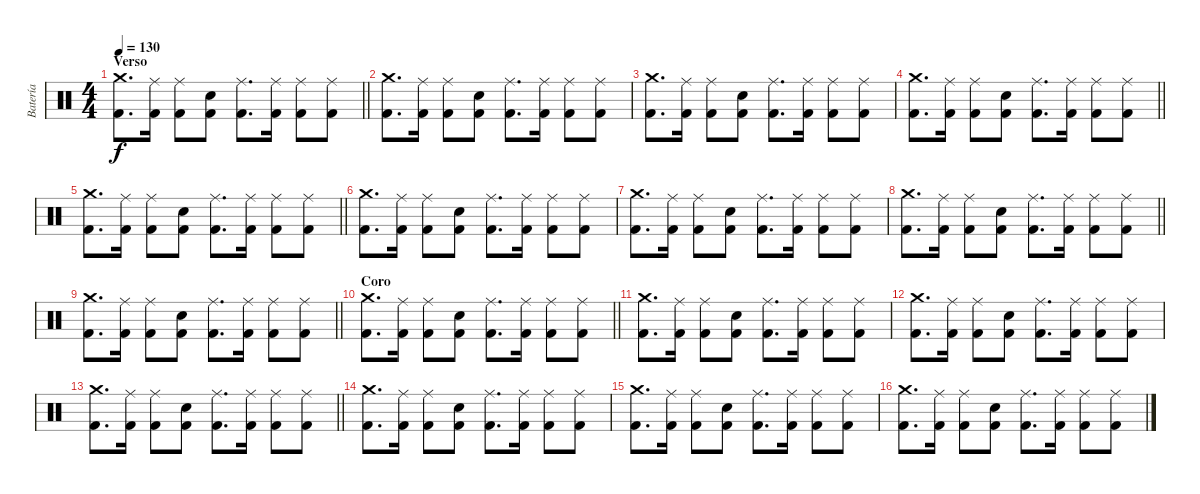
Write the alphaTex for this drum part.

\track ("Batería" "Batería") {instrument percussion}
\staff {score}
\articulation defaults
\ts (4 4)
\section ("" "Verso")
\tempo 130
\clef neutral
\barLineRight lightlight
\ks c
("Crash medium (hit)" "Kick (hit) 2").8{d dy f} ("Ride (middle)" "Kick (hit) 2").16 ("Ride (middle)" "Kick (hit) 2").8 ("Electric Snare (hit)" "Kick (hit) 2").8 ("Ride (middle)" "Kick (hit) 2").8{d} ("Ride (middle)" "Kick (hit) 2").16 ("Ride (middle)" "Kick (hit) 2").8 ("Ride (middle)" "Kick (hit) 2").8 |
("Crash medium (hit)" "Kick (hit) 2").8{d} ("Ride (middle)" "Kick (hit) 2").16 ("Ride (middle)" "Kick (hit) 2").8 ("Electric Snare (hit)" "Kick (hit) 2").8 ("Ride (middle)" "Kick (hit) 2").8{d} ("Ride (middle)" "Kick (hit) 2").16 ("Ride (middle)" "Kick (hit) 2").8 ("Ride (middle)" "Kick (hit) 2").8 |
("Crash medium (hit)" "Kick (hit) 2").8{d} ("Ride (middle)" "Kick (hit) 2").16 ("Ride (middle)" "Kick (hit) 2").8 ("Electric Snare (hit)" "Kick (hit) 2").8 ("Ride (middle)" "Kick (hit) 2").8{d} ("Ride (middle)" "Kick (hit) 2").16 ("Ride (middle)" "Kick (hit) 2").8 ("Ride (middle)" "Kick (hit) 2").8 |
\barLineRight lightlight
("Crash medium (hit)" "Kick (hit) 2").8{d} ("Ride (middle)" "Kick (hit) 2").16 ("Ride (middle)" "Kick (hit) 2").8 ("Electric Snare (hit)" "Kick (hit) 2").8 ("Ride (middle)" "Kick (hit) 2").8{d} ("Ride (middle)" "Kick (hit) 2").16 ("Ride (middle)" "Kick (hit) 2").8 ("Ride (middle)" "Kick (hit) 2").8 |
\barLineRight lightlight
("Crash medium (hit)" "Kick (hit) 2").8{d} ("Ride (middle)" "Kick (hit) 2").16 ("Ride (middle)" "Kick (hit) 2").8 ("Electric Snare (hit)" "Kick (hit) 2").8 ("Ride (middle)" "Kick (hit) 2").8{d} ("Ride (middle)" "Kick (hit) 2").16 ("Ride (middle)" "Kick (hit) 2").8 ("Ride (middle)" "Kick (hit) 2").8 |
("Crash medium (hit)" "Kick (hit) 2").8{d} ("Ride (middle)" "Kick (hit) 2").16 ("Ride (middle)" "Kick (hit) 2").8 ("Electric Snare (hit)" "Kick (hit) 2").8 ("Ride (middle)" "Kick (hit) 2").8{d} ("Ride (middle)" "Kick (hit) 2").16 ("Ride (middle)" "Kick (hit) 2").8 ("Ride (middle)" "Kick (hit) 2").8 |
("Crash medium (hit)" "Kick (hit) 2").8{d} ("Ride (middle)" "Kick (hit) 2").16 ("Ride (middle)" "Kick (hit) 2").8 ("Electric Snare (hit)" "Kick (hit) 2").8 ("Ride (middle)" "Kick (hit) 2").8{d} ("Ride (middle)" "Kick (hit) 2").16 ("Ride (middle)" "Kick (hit) 2").8 ("Ride (middle)" "Kick (hit) 2").8 |
\barLineRight lightlight
("Crash medium (hit)" "Kick (hit) 2").8{d} ("Ride (middle)" "Kick (hit) 2").16 ("Ride (middle)" "Kick (hit) 2").8 ("Electric Snare (hit)" "Kick (hit) 2").8 ("Ride (middle)" "Kick (hit) 2").8{d} ("Ride (middle)" "Kick (hit) 2").16 ("Ride (middle)" "Kick (hit) 2").8 ("Ride (middle)" "Kick (hit) 2").8 |
\barLineRight lightlight
("Crash medium (hit)" "Kick (hit) 2").8{d} ("Ride (middle)" "Kick (hit) 2").16 ("Ride (middle)" "Kick (hit) 2").8 ("Electric Snare (hit)" "Kick (hit) 2").8 ("Ride (middle)" "Kick (hit) 2").8{d} ("Ride (middle)" "Kick (hit) 2").16 ("Ride (middle)" "Kick (hit) 2").8 ("Ride (middle)" "Kick (hit) 2").8 |
\section ("" "Coro")
\barLineRight lightlight
("Crash medium (hit)" "Kick (hit) 2").8{d} ("Ride (middle)" "Kick (hit) 2").16 ("Ride (middle)" "Kick (hit) 2").8 ("Electric Snare (hit)" "Kick (hit) 2").8 ("Ride (middle)" "Kick (hit) 2").8{d} ("Ride (middle)" "Kick (hit) 2").16 ("Ride (middle)" "Kick (hit) 2").8 ("Ride (middle)" "Kick (hit) 2").8 |
("Crash medium (hit)" "Kick (hit) 2").8{d} ("Ride (middle)" "Kick (hit) 2").16 ("Ride (middle)" "Kick (hit) 2").8 ("Electric Snare (hit)" "Kick (hit) 2").8 ("Ride (middle)" "Kick (hit) 2").8{d} ("Ride (middle)" "Kick (hit) 2").16 ("Ride (middle)" "Kick (hit) 2").8 ("Ride (middle)" "Kick (hit) 2").8 |
("Crash medium (hit)" "Kick (hit) 2").8{d} ("Ride (middle)" "Kick (hit) 2").16 ("Ride (middle)" "Kick (hit) 2").8 ("Electric Snare (hit)" "Kick (hit) 2").8 ("Ride (middle)" "Kick (hit) 2").8{d} ("Ride (middle)" "Kick (hit) 2").16 ("Ride (middle)" "Kick (hit) 2").8 ("Ride (middle)" "Kick (hit) 2").8 |
\barLineRight lightlight
("Crash medium (hit)" "Kick (hit) 2").8{d} ("Ride (middle)" "Kick (hit) 2").16 ("Ride (middle)" "Kick (hit) 2").8 ("Electric Snare (hit)" "Kick (hit) 2").8 ("Ride (middle)" "Kick (hit) 2").8{d} ("Ride (middle)" "Kick (hit) 2").16 ("Ride (middle)" "Kick (hit) 2").8 ("Ride (middle)" "Kick (hit) 2").8 |
("Crash medium (hit)" "Kick (hit) 2").8{d} ("Ride (middle)" "Kick (hit) 2").16 ("Ride (middle)" "Kick (hit) 2").8 ("Electric Snare (hit)" "Kick (hit) 2").8 ("Ride (middle)" "Kick (hit) 2").8{d} ("Ride (middle)" "Kick (hit) 2").16 ("Ride (middle)" "Kick (hit) 2").8 ("Ride (middle)" "Kick (hit) 2").8 |
("Crash medium (hit)" "Kick (hit) 2").8{d} ("Ride (middle)" "Kick (hit) 2").16 ("Ride (middle)" "Kick (hit) 2").8 ("Electric Snare (hit)" "Kick (hit) 2").8 ("Ride (middle)" "Kick (hit) 2").8{d} ("Ride (middle)" "Kick (hit) 2").16 ("Ride (middle)" "Kick (hit) 2").8 ("Ride (middle)" "Kick (hit) 2").8 |
("Crash medium (hit)" "Kick (hit) 2").8{d} ("Ride (middle)" "Kick (hit) 2").16 ("Ride (middle)" "Kick (hit) 2").8 ("Electric Snare (hit)" "Kick (hit) 2").8 ("Ride (middle)" "Kick (hit) 2").8{d} ("Ride (middle)" "Kick (hit) 2").16 ("Ride (middle)" "Kick (hit) 2").8 ("Ride (middle)" "Kick (hit) 2").8
